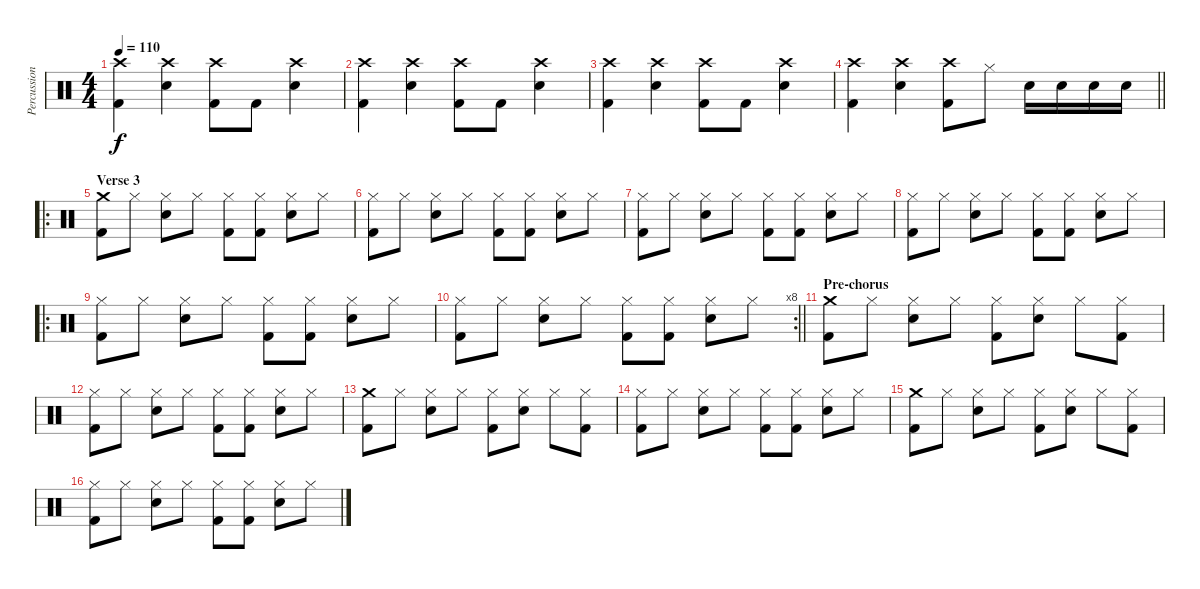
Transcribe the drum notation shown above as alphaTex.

\track ("Percussion" "Percussion") {instrument percussion}
\staff {score}
\articulation defaults
\ts (4 4)
\tempo 110
\clef neutral
\ks c
("Crash high (hit)" "Kick (hit) 2").4{dy f} ("Crash high (hit)" "Electric Snare (hit)").4 ("Crash high (hit)" "Kick (hit) 2").8 "Kick (hit) 2".8 ("Crash high (hit)" "Electric Snare (hit)").4 |
("Crash high (hit)" "Kick (hit) 2").4 ("Crash high (hit)" "Electric Snare (hit)").4 ("Crash high (hit)" "Kick (hit) 2").8 "Kick (hit) 2".8 ("Crash high (hit)" "Electric Snare (hit)").4 |
("Crash high (hit)" "Kick (hit) 2").4 ("Crash high (hit)" "Electric Snare (hit)").4 ("Crash high (hit)" "Kick (hit) 2").8 "Kick (hit) 2".8 ("Crash high (hit)" "Electric Snare (hit)").4 |
\barLineRight lightlight
("Crash high (hit)" "Kick (hit) 2").4 ("Crash high (hit)" "Electric Snare (hit)").4 ("Crash high (hit)" "Kick (hit) 2").8 "Hi-Hat (closed)".8 "Electric Snare (hit)".16 "Electric Snare (hit)".16 "Electric Snare (hit)".16 "Electric Snare (hit)".16 |
\ro
\section ("" "Verse 3")
("Crash medium (hit)" "Kick (hit) 2").8 "Hi-Hat (closed)".8 ("Hi-Hat (closed)" "Electric Snare (hit)").8 "Hi-Hat (closed)".8 ("Hi-Hat (closed)" "Kick (hit) 2").8 ("Hi-Hat (closed)" "Kick (hit) 2").8 ("Hi-Hat (closed)" "Electric Snare (hit)").8 "Hi-Hat (closed)".8 |
("Hi-Hat (closed)" "Kick (hit) 2").8 "Hi-Hat (closed)".8 ("Hi-Hat (closed)" "Electric Snare (hit)").8 "Hi-Hat (closed)".8 ("Hi-Hat (closed)" "Kick (hit) 2").8 ("Hi-Hat (closed)" "Kick (hit) 2").8 ("Hi-Hat (closed)" "Electric Snare (hit)").8 "Hi-Hat (closed)".8 |
("Hi-Hat (closed)" "Kick (hit) 2").8 "Hi-Hat (closed)".8 ("Hi-Hat (closed)" "Electric Snare (hit)").8 "Hi-Hat (closed)".8 ("Hi-Hat (closed)" "Kick (hit) 2").8 ("Hi-Hat (closed)" "Kick (hit) 2").8 ("Hi-Hat (closed)" "Electric Snare (hit)").8 "Hi-Hat (closed)".8 |
("Hi-Hat (closed)" "Kick (hit) 2").8 "Hi-Hat (closed)".8 ("Hi-Hat (closed)" "Electric Snare (hit)").8 "Hi-Hat (closed)".8 ("Hi-Hat (closed)" "Kick (hit) 2").8 ("Hi-Hat (closed)" "Kick (hit) 2").8 ("Hi-Hat (closed)" "Electric Snare (hit)").8 "Hi-Hat (closed)".8 |
\ro
("Hi-Hat (closed)" "Kick (hit) 2").8 "Hi-Hat (closed)".8 ("Hi-Hat (closed)" "Electric Snare (hit)").8 "Hi-Hat (closed)".8 ("Hi-Hat (closed)" "Kick (hit) 2").8 ("Hi-Hat (closed)" "Kick (hit) 2").8 ("Hi-Hat (closed)" "Electric Snare (hit)").8 "Hi-Hat (closed)".8 |
\rc 8
\barLineRight lightlight
("Hi-Hat (closed)" "Kick (hit) 2").8 "Hi-Hat (closed)".8 ("Hi-Hat (closed)" "Electric Snare (hit)").8 "Hi-Hat (closed)".8 ("Hi-Hat (closed)" "Kick (hit) 2").8 ("Hi-Hat (closed)" "Kick (hit) 2").8 ("Hi-Hat (closed)" "Electric Snare (hit)").8 "Hi-Hat (closed)".8 |
\section ("" "Pre-chorus")
("Crash medium (hit)" "Kick (hit) 2").8 "Hi-Hat (closed)".8 ("Hi-Hat (closed)" "Electric Snare (hit)").8 "Hi-Hat (closed)".8 ("Hi-Hat (closed)" "Kick (hit) 2").8 ("Hi-Hat (closed)" "Electric Snare (hit)").8 "Hi-Hat (closed)".8 ("Hi-Hat (closed)" "Kick (hit) 2").8 |
("Hi-Hat (closed)" "Kick (hit) 2").8 "Hi-Hat (closed)".8 ("Hi-Hat (closed)" "Electric Snare (hit)").8 "Hi-Hat (closed)".8 ("Hi-Hat (closed)" "Kick (hit) 2").8 ("Hi-Hat (closed)" "Kick (hit) 2").8 ("Hi-Hat (closed)" "Electric Snare (hit)").8 "Hi-Hat (closed)".8 |
("Crash medium (hit)" "Kick (hit) 2").8 "Hi-Hat (closed)".8 ("Hi-Hat (closed)" "Electric Snare (hit)").8 "Hi-Hat (closed)".8 ("Hi-Hat (closed)" "Kick (hit) 2").8 ("Hi-Hat (closed)" "Electric Snare (hit)").8 "Hi-Hat (closed)".8 ("Hi-Hat (closed)" "Kick (hit) 2").8 |
("Hi-Hat (closed)" "Kick (hit) 2").8 "Hi-Hat (closed)".8 ("Hi-Hat (closed)" "Electric Snare (hit)").8 "Hi-Hat (closed)".8 ("Hi-Hat (closed)" "Kick (hit) 2").8 ("Hi-Hat (closed)" "Kick (hit) 2").8 ("Hi-Hat (closed)" "Electric Snare (hit)").8 "Hi-Hat (closed)".8 |
("Crash medium (hit)" "Kick (hit) 2").8 "Hi-Hat (closed)".8 ("Hi-Hat (closed)" "Electric Snare (hit)").8 "Hi-Hat (closed)".8 ("Hi-Hat (closed)" "Kick (hit) 2").8 ("Hi-Hat (closed)" "Electric Snare (hit)").8 "Hi-Hat (closed)".8 ("Hi-Hat (closed)" "Kick (hit) 2").8 |
("Hi-Hat (closed)" "Kick (hit) 2").8 "Hi-Hat (closed)".8 ("Hi-Hat (closed)" "Electric Snare (hit)").8 "Hi-Hat (closed)".8 ("Hi-Hat (closed)" "Kick (hit) 2").8 ("Hi-Hat (closed)" "Kick (hit) 2").8 ("Hi-Hat (closed)" "Electric Snare (hit)").8 "Hi-Hat (closed)".8
